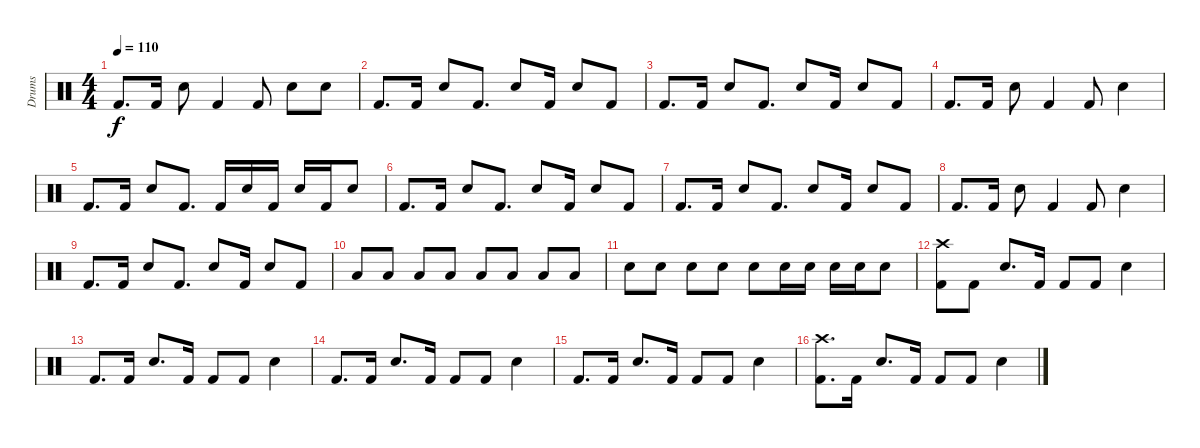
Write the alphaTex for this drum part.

\track ("Drums" "Drums") {instrument percussion}
\staff {score}
\articulation defaults
\ts (4 4)
\tempo 110
\clef neutral
\ks c "Kick (hit) 2".8{d dy f} "Kick (hit) 2".16 "Snare (hit) 2".8 "Kick (hit) 2".4 "Kick (hit) 2".8 "Snare (hit) 2".8 "Snare (hit) 2".8
|
"Kick (hit) 2".8{d} "Kick (hit) 2".16 "Snare (hit) 2".8 "Kick (hit) 2".8{d} "Snare (hit) 2".8 "Kick (hit) 2".16 "Snare (hit) 2".8 "Kick (hit) 2".8 |
"Kick (hit) 2".8{d} "Kick (hit) 2".16 "Snare (hit) 2".8 "Kick (hit) 2".8{d} "Snare (hit) 2".8 "Kick (hit) 2".16 "Snare (hit) 2".8 "Kick (hit) 2".8 |
"Kick (hit) 2".8{d} "Kick (hit) 2".16 "Snare (hit) 2".8 "Kick (hit) 2".4 "Kick (hit) 2".8 "Snare (hit) 2".4 |
"Kick (hit) 2".8{d} "Kick (hit) 2".16 "Snare (hit) 2".8 "Kick (hit) 2".8{d} "Kick (hit) 2".16 "Snare (hit) 2".16 "Kick (hit) 2".16 "Snare (hit) 2".16 "Kick (hit) 2".16 "Snare (hit) 2".8 |
"Kick (hit) 2".8{d} "Kick (hit) 2".16 "Snare (hit) 2".8 "Kick (hit) 2".8{d} "Snare (hit) 2".8 "Kick (hit) 2".16 "Snare (hit) 2".8 "Kick (hit) 2".8 |
"Kick (hit) 2".8{d} "Kick (hit) 2".16 "Snare (hit) 2".8 "Kick (hit) 2".8{d} "Snare (hit) 2".8 "Kick (hit) 2".16 "Snare (hit) 2".8 "Kick (hit) 2".8 |
"Kick (hit) 2".8{d} "Kick (hit) 2".16 "Snare (hit) 2".8 "Kick (hit) 2".4 "Kick (hit) 2".8 "Snare (hit) 2".4 |
"Kick (hit) 2".8{d} "Kick (hit) 2".16 "Snare (hit) 2".8 "Kick (hit) 2".8{d} "Snare (hit) 2".8 "Kick (hit) 2".16 "Snare (hit) 2".8 "Kick (hit) 2".8 |
"Low Tom (hit)".8 "Low Tom (hit)".8 "Low Tom (hit)".8 "Low Tom (hit)".8 "Low Tom (hit)".8 "Low Tom (hit)".8 "Low Tom (hit)".8 "Low Tom (hit)".8 |
"Snare (hit) 2".8 "Snare (hit) 2".8 "Snare (hit) 2".8 "Snare (hit) 2".8 "Snare (hit) 2".8 "Snare (hit) 2".16 "Snare (hit) 2".16 "Snare (hit) 2".16 "Snare (hit) 2".16 "Snare (hit) 2".8 |
("Crash high (hit)" "Kick (hit) 2").8 "Kick (hit) 2".8 "Snare (hit) 2".8{d} "Kick (hit) 2".16 "Kick (hit) 2".8 "Kick (hit) 2".8 "Snare (hit) 2".4 |
"Kick (hit) 2".8{d} "Kick (hit) 2".16 "Snare (hit) 2".8{d} "Kick (hit) 2".16 "Kick (hit) 2".8 "Kick (hit) 2".8 "Snare (hit) 2".4 |
"Kick (hit) 2".8{d} "Kick (hit) 2".16 "Snare (hit) 2".8{d} "Kick (hit) 2".16 "Kick (hit) 2".8 "Kick (hit) 2".8 "Snare (hit) 2".4 |
"Kick (hit) 2".8{d} "Kick (hit) 2".16 "Snare (hit) 2".8{d} "Kick (hit) 2".16 "Kick (hit) 2".8 "Kick (hit) 2".8 "Snare (hit) 2".4 |
("Crash high (hit)" "Kick (hit) 2").8{d} "Kick (hit) 2".16 "Snare (hit) 2".8{d} "Kick (hit) 2".16 "Kick (hit) 2".8 "Kick (hit) 2".8 "Snare (hit) 2".4
